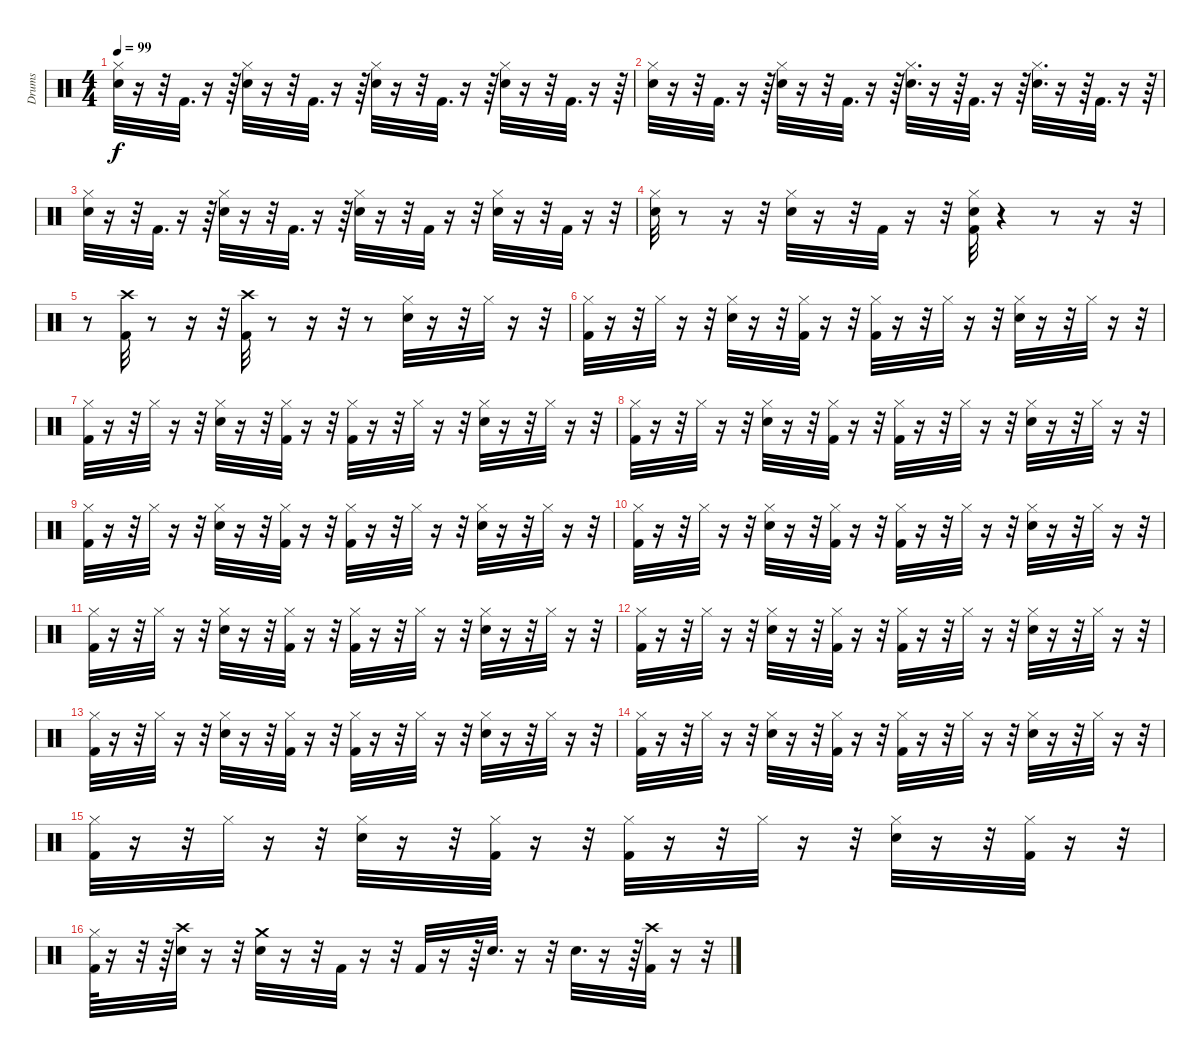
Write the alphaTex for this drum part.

\track ("Drums" "Drums") {instrument percussion}
\staff {score}
\articulation defaults
\ts (4 4)
\tempo 99
\clef neutral
\ks c
("Hi-Hat (closed)" "Snare (hit) 2").32{dy f} r.16 r.32 "Kick (hit) 2".32{d} r.16 r.64 ("Hi-Hat (closed)" "Snare (hit) 2").32 r.16 r.32 "Kick (hit) 2".32{d} r.16 r.64 ("Hi-Hat (closed)" "Snare (hit) 2").32 r.16 r.32 "Kick (hit) 2".32{d} r.16 r.64 ("Hi-Hat (closed)" "Snare (hit) 2").32 r.16 r.32 "Kick (hit) 2".32{d} r.16 r.64 |
("Hi-Hat (closed)" "Snare (hit) 2").32 r.16 r.32 "Kick (hit) 2".32{d} r.16 r.64 ("Hi-Hat (closed)" "Snare (hit) 2").32 r.16 r.32 "Kick (hit) 2".32{d} r.16 r.64 ("Hi-Hat (closed)" "Snare (hit) 2").32{d} r.16 r.64 "Kick (hit) 2".32{d} r.16 r.64 ("Hi-Hat (closed)" "Snare (hit) 2").32{d} r.16 r.64 "Kick (hit) 2".32{d} r.16 r.64 |
("Hi-Hat (closed)" "Snare (hit) 2").32 r.16 r.32 "Kick (hit) 2".32{d} r.16 r.64 ("Hi-Hat (closed)" "Snare (hit) 2").32 r.16 r.32 "Kick (hit) 2".32{d} r.16 r.64 ("Hi-Hat (closed)" "Snare (hit) 2").32 r.16 r.32 "Kick (hit) 2".32 r.16 r.32 ("Hi-Hat (closed)" "Snare (hit) 2").32 r.16 r.32 "Kick (hit) 2".32 r.16 r.32 |
("Hi-Hat (closed)" "Snare (hit) 2").32 r.8 r.16 r.32 ("Hi-Hat (closed)" "Snare (hit) 2").32 r.16 r.32 "Kick (hit) 2".32 r.16 r.32 ("Hi-Hat (closed)" "Kick (hit) 2" "Snare (hit) 2").32 r.4 r.8 r.16 r.32 |
r.8 ("Crash high (hit)" "Kick (hit) 2").32 r.8 r.16 r.32 ("Crash high (hit)" "Kick (hit) 2").32 r.8 r.16 r.32 r.8 ("Hi-Hat (closed)" "Snare (hit) 2").32 r.16 r.32 "Hi-Hat (closed)".32 r.16 r.32 |
("Hi-Hat (closed)" "Kick (hit) 2").32 r.16 r.32 "Hi-Hat (closed)".32 r.16 r.32 ("Hi-Hat (closed)" "Snare (hit) 2").32 r.16 r.32 ("Hi-Hat (closed)" "Kick (hit) 2").32 r.16 r.32 ("Hi-Hat (closed)" "Kick (hit) 2").32 r.16 r.32 "Hi-Hat (closed)".32 r.16 r.32 ("Hi-Hat (closed)" "Snare (hit) 2").32 r.16 r.32 "Hi-Hat (closed)".32 r.16 r.32 |
("Hi-Hat (closed)" "Kick (hit) 2").32 r.16 r.32 "Hi-Hat (closed)".32 r.16 r.32 ("Hi-Hat (closed)" "Snare (hit) 2").32 r.16 r.32 ("Hi-Hat (closed)" "Kick (hit) 2").32 r.16 r.32 ("Hi-Hat (closed)" "Kick (hit) 2").32 r.16 r.32 "Hi-Hat (closed)".32 r.16 r.32 ("Hi-Hat (closed)" "Snare (hit) 2").32 r.16 r.32 "Hi-Hat (closed)".32 r.16 r.32 |
("Hi-Hat (closed)" "Kick (hit) 2").32 r.16 r.32 "Hi-Hat (closed)".32 r.16 r.32 ("Hi-Hat (closed)" "Snare (hit) 2").32 r.16 r.32 ("Hi-Hat (closed)" "Kick (hit) 2").32 r.16 r.32 ("Hi-Hat (closed)" "Kick (hit) 2").32 r.16 r.32 "Hi-Hat (closed)".32 r.16 r.32 ("Hi-Hat (closed)" "Snare (hit) 2").32 r.16 r.32 "Hi-Hat (closed)".32 r.16 r.32 |
("Hi-Hat (closed)" "Kick (hit) 2").32 r.16 r.32 "Hi-Hat (closed)".32 r.16 r.32 ("Hi-Hat (closed)" "Snare (hit) 2").32 r.16 r.32 ("Hi-Hat (closed)" "Kick (hit) 2").32 r.16 r.32 ("Hi-Hat (closed)" "Kick (hit) 2").32 r.16 r.32 "Hi-Hat (closed)".32 r.16 r.32 ("Hi-Hat (closed)" "Snare (hit) 2").32 r.16 r.32 "Hi-Hat (closed)".32 r.16 r.32 |
("Hi-Hat (closed)" "Kick (hit) 2").32 r.16 r.32 "Hi-Hat (closed)".32 r.16 r.32 ("Hi-Hat (closed)" "Snare (hit) 2").32 r.16 r.32 ("Hi-Hat (closed)" "Kick (hit) 2").32 r.16 r.32 ("Hi-Hat (closed)" "Kick (hit) 2").32 r.16 r.32 "Hi-Hat (closed)".32 r.16 r.32 ("Hi-Hat (closed)" "Snare (hit) 2").32 r.16 r.32 "Hi-Hat (closed)".32 r.16 r.32 |
("Hi-Hat (closed)" "Kick (hit) 2").32 r.16 r.32 "Hi-Hat (closed)".32 r.16 r.32 ("Hi-Hat (closed)" "Snare (hit) 2").32 r.16 r.32 ("Hi-Hat (closed)" "Kick (hit) 2").32 r.16 r.32 ("Hi-Hat (closed)" "Kick (hit) 2").32 r.16 r.32 "Hi-Hat (closed)".32 r.16 r.32 ("Hi-Hat (closed)" "Snare (hit) 2").32 r.16 r.32 "Hi-Hat (closed)".32 r.16 r.32 |
("Hi-Hat (closed)" "Kick (hit) 2").32 r.16 r.32 "Hi-Hat (closed)".32 r.16 r.32 ("Hi-Hat (closed)" "Snare (hit) 2").32 r.16 r.32 ("Hi-Hat (closed)" "Kick (hit) 2").32 r.16 r.32 ("Hi-Hat (closed)" "Kick (hit) 2").32 r.16 r.32 "Hi-Hat (closed)".32 r.16 r.32 ("Hi-Hat (closed)" "Snare (hit) 2").32 r.16 r.32 "Hi-Hat (closed)".32 r.16 r.32 |
("Hi-Hat (closed)" "Kick (hit) 2").32 r.16 r.32 "Hi-Hat (closed)".32 r.16 r.32 ("Hi-Hat (closed)" "Snare (hit) 2").32 r.16 r.32 ("Hi-Hat (closed)" "Kick (hit) 2").32 r.16 r.32 ("Hi-Hat (closed)" "Kick (hit) 2").32 r.16 r.32 "Hi-Hat (closed)".32 r.16 r.32 ("Hi-Hat (closed)" "Snare (hit) 2").32 r.16 r.32 "Hi-Hat (closed)".32 r.16 r.32 |
("Hi-Hat (closed)" "Kick (hit) 2").32 r.16 r.32 "Hi-Hat (closed)".32 r.16 r.32 ("Hi-Hat (closed)" "Snare (hit) 2").32 r.16 r.32 ("Hi-Hat (closed)" "Kick (hit) 2").32 r.16 r.32 ("Hi-Hat (closed)" "Kick (hit) 2").32 r.16 r.32 "Hi-Hat (closed)".32 r.16 r.32 ("Hi-Hat (closed)" "Snare (hit) 2").32 r.16 r.32 "Hi-Hat (closed)".32 r.16 r.32 |
("Hi-Hat (closed)" "Kick (hit) 2").32 r.16 r.32 "Hi-Hat (closed)".32 r.16 r.32 ("Hi-Hat (closed)" "Snare (hit) 2").32 r.16 r.32 ("Hi-Hat (closed)" "Kick (hit) 2").32 r.16 r.32 ("Hi-Hat (closed)" "Kick (hit) 2").32 r.16 r.32 "Hi-Hat (closed)".32 r.16 r.32 ("Hi-Hat (closed)" "Snare (hit) 2").32 r.16 r.32 ("Hi-Hat (closed)" "Kick (hit) 2").32 r.16 r.32 |
("Hi-Hat (closed)" "Kick (hit) 2").64 r.16 r.32 r.64 ("Crash high (hit)" "Snare (hit) 2").32 r.16 r.32 ("Crash medium (hit)" "Snare (hit) 2").32 r.16 r.32 "Kick (hit) 2".32 r.16 r.32 "Kick (hit) 2".32 r.16 r.64 "Snare (hit) 2".32{d} r.16 r.32 "Snare (hit) 2".32{d} r.16 r.64 ("Crash high (hit)" "Kick (hit) 2").32 r.16 r.32
